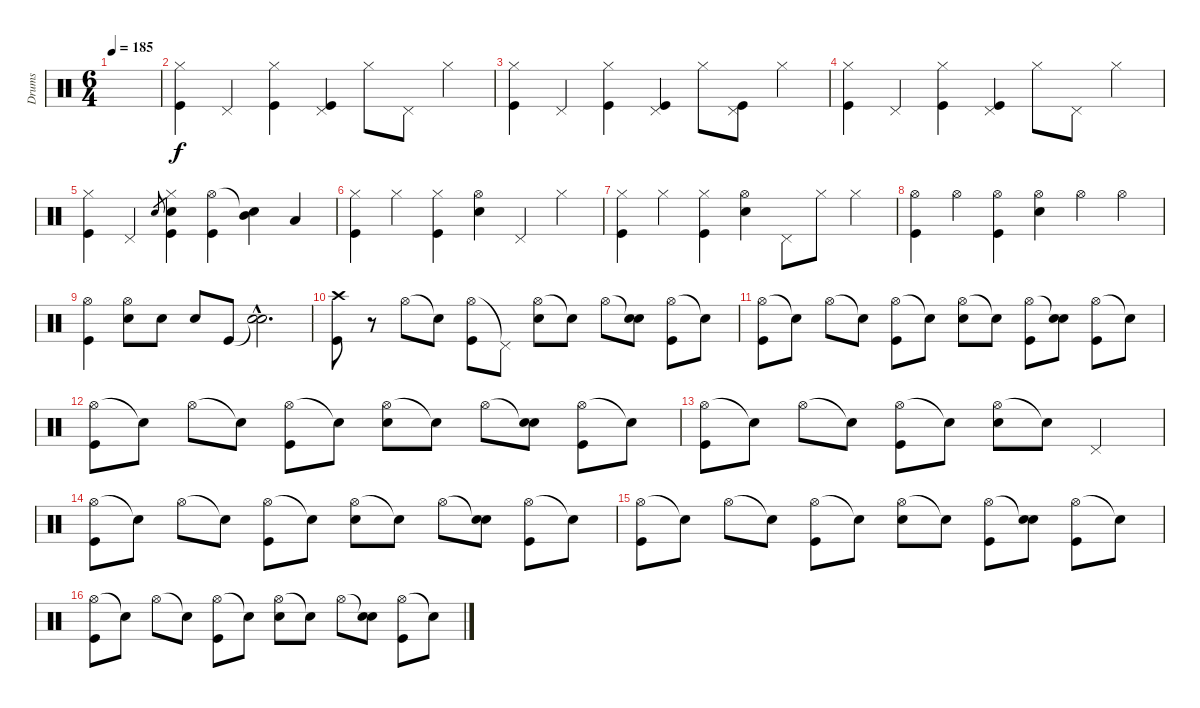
\track ("Drums" "Drums") {instrument percussion}
\staff {score}
\articulation defaults
\ts (6 4)
\tempo 185
\clef neutral
\ks c
|
("Hi-Hat (closed)" "Kick (hit)").4 "Pedal Hi-Hat (hit)".4 ("Hi-Hat (closed)" "Kick (hit)").4 ("Pedal Hi-Hat (hit)" "Kick (hit)").4 "Hi-Hat (closed)".8 "Pedal Hi-Hat (hit)".8 "Hi-Hat (closed)".4 |
("Hi-Hat (closed)" "Kick (hit)").4 "Pedal Hi-Hat (hit)".4 ("Hi-Hat (closed)" "Kick (hit)").4 ("Pedal Hi-Hat (hit)" "Kick (hit)").4 "Hi-Hat (closed)".8 ("Pedal Hi-Hat (hit)" "Kick (hit)").8 "Hi-Hat (closed)".4 |
("Hi-Hat (closed)" "Kick (hit)").4 "Pedal Hi-Hat (hit)".4 ("Hi-Hat (closed)" "Kick (hit)").4 ("Pedal Hi-Hat (hit)" "Kick (hit)").4 "Hi-Hat (closed)".8 "Pedal Hi-Hat (hit)".8 "Hi-Hat (closed)".4 |
("Hi-Hat (closed)" "Kick (hit)").4 "Pedal Hi-Hat (hit)".4 "Electric Snare (hit)".8{gr} ("Hi-Hat (closed)" "Electric Snare (hit)" "Kick (hit)").4 ("Hi-Hat (open)" "Kick (hit)").4 ("Snare (hit)"{t} "Mid Tom (hit)").4 "Low Tom (hit)".4 |
("Hi-Hat (closed)" "Kick (hit)").4 "Hi-Hat (closed)".4 ("Hi-Hat (closed)" "Kick (hit)").4 ("Hi-Hat (open)" "Electric Snare (hit)").4 "Pedal Hi-Hat (hit)".4 "Hi-Hat (closed)".4 |
("Hi-Hat (closed)" "Kick (hit)").4 "Hi-Hat (closed)".4 ("Hi-Hat (closed)" "Kick (hit)").4 ("Hi-Hat (open)" "Electric Snare (hit)").4 "Pedal Hi-Hat (hit)".8 "Hi-Hat (closed)".8 "Hi-Hat (closed)".4 |
("Hi-Hat (open)" "Kick (hit)").4 "Hi-Hat (open)".4 ("Hi-Hat (open)" "Kick (hit)").4 ("Hi-Hat (open)" "Electric Snare (hit)").4 "Hi-Hat (open)".4 "Hi-Hat (open)".4 |
("Hi-Hat (open)" "Kick (hit)").4 ("Hi-Hat (open)" "Electric Snare (hit)").8 "Electric Snare (hit)".8 "Electric Snare (hit)".8 "Kick (hit)".8 ("Snare (hit)"{hac t} "Electric Snare (hit)"{hac}).2{d} |
("Crash high (hit)" "Kick (hit)").8 r.8 "Hi-Hat (open)".8 "Snare (hit)"{t}.8 ("Hi-Hat (open)" "Kick (hit)").8 "Pedal Hi-Hat (hit)"{t}.8 ("Hi-Hat (open)" "Electric Snare (hit)").8 "Snare (hit)"{t}.8 "Hi-Hat (open)".8 ("Snare (hit)"{t} "Electric Snare (hit)").8 ("Hi-Hat (open)" "Kick (hit)").8 "Snare (hit)"{t}.8 |
("Hi-Hat (open)" "Kick (hit)").8 "Snare (hit)"{t}.8 "Hi-Hat (open)".8 "Snare (hit)"{t}.8 ("Hi-Hat (open)" "Kick (hit)").8 "Snare (hit)"{t}.8 ("Hi-Hat (open)" "Electric Snare (hit)").8 "Snare (hit)"{t}.8 ("Hi-Hat (open)" "Kick (hit)").8 ("Snare (hit)"{t} "Electric Snare (hit)").8 ("Hi-Hat (open)" "Kick (hit)").8 "Snare (hit)"{t}.8 |
("Hi-Hat (open)" "Kick (hit)").8 "Snare (hit)"{t}.8 "Hi-Hat (open)".8 "Snare (hit)"{t}.8 ("Hi-Hat (open)" "Kick (hit)").8 "Snare (hit)"{t}.8 ("Hi-Hat (open)" "Electric Snare (hit)").8 "Snare (hit)"{t}.8 "Hi-Hat (open)".8 ("Snare (hit)"{t} "Electric Snare (hit)").8 ("Hi-Hat (open)" "Kick (hit)").8 "Snare (hit)"{t}.8 |
("Hi-Hat (open)" "Kick (hit)").8 "Snare (hit)"{t}.8 "Hi-Hat (open)".8 "Snare (hit)"{t}.8 ("Hi-Hat (open)" "Kick (hit)").8 "Snare (hit)"{t}.8 ("Hi-Hat (open)" "Electric Snare (hit)").8 "Snare (hit)"{t}.8 "Pedal Hi-Hat (hit)".2 |
("Hi-Hat (open)" "Kick (hit)").8 "Snare (hit)"{t}.8 "Hi-Hat (open)".8 "Snare (hit)"{t}.8 ("Hi-Hat (open)" "Kick (hit)").8 "Snare (hit)"{t}.8 ("Hi-Hat (open)" "Electric Snare (hit)").8 "Snare (hit)"{t}.8 "Hi-Hat (open)".8 ("Snare (hit)"{t} "Electric Snare (hit)").8 ("Hi-Hat (open)" "Kick (hit)").8 "Snare (hit)"{t}.8 |
("Hi-Hat (open)" "Kick (hit)").8 "Snare (hit)"{t}.8 "Hi-Hat (open)".8 "Snare (hit)"{t}.8 ("Hi-Hat (open)" "Kick (hit)").8 "Snare (hit)"{t}.8 ("Hi-Hat (open)" "Electric Snare (hit)").8 "Snare (hit)"{t}.8 ("Hi-Hat (open)" "Kick (hit)").8 ("Snare (hit)"{t} "Electric Snare (hit)").8 ("Hi-Hat (open)" "Kick (hit)").8 "Snare (hit)"{t}.8 |
("Hi-Hat (open)" "Kick (hit)").8 "Snare (hit)"{t}.8 "Hi-Hat (open)".8 "Snare (hit)"{t}.8 ("Hi-Hat (open)" "Kick (hit)").8 "Snare (hit)"{t}.8 ("Hi-Hat (open)" "Electric Snare (hit)").8 "Snare (hit)"{t}.8 "Hi-Hat (open)".8 ("Snare (hit)"{t} "Electric Snare (hit)").8 ("Hi-Hat (open)" "Kick (hit)").8 "Snare (hit)"{t}.8
